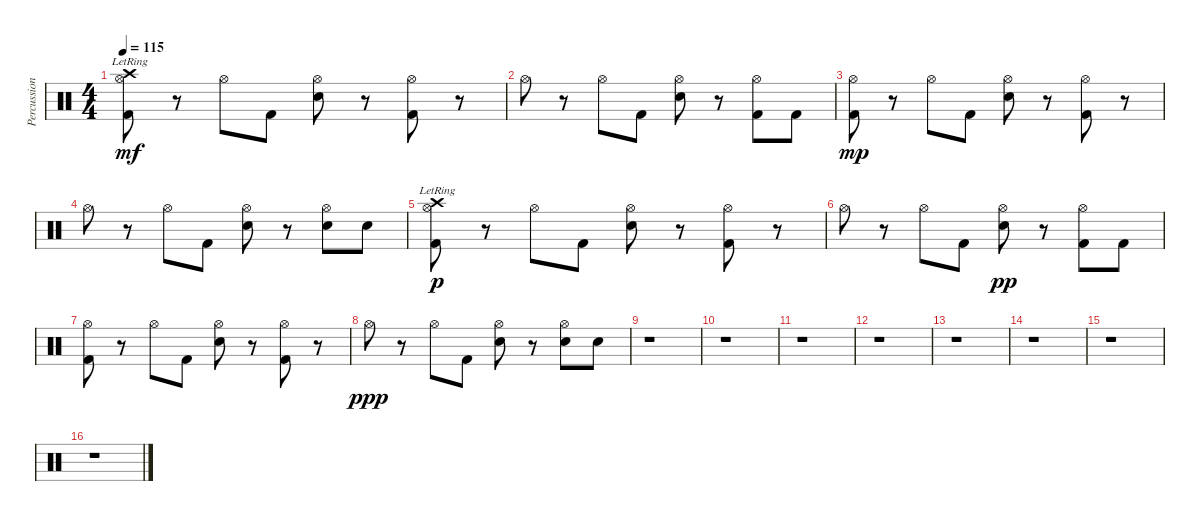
\track ("Percussions" "Percussion") {instrument percussion}
\staff {score}
\articulation defaults
\ts (4 4)
\tempo 115
\clef neutral
\ks c
("Crash high (hit)"{lr} "Kick (hit) 2" "Hi-Hat (open)").8{dy mf} r.8 "Hi-Hat (open)".8 "Kick (hit) 2".8 ("Electric Snare (hit)" "Hi-Hat (open)").8 r.8 ("Kick (hit) 2" "Hi-Hat (open)").8 r.8 |
"Hi-Hat (open)".8 r.8 "Hi-Hat (open)".8 "Kick (hit) 2".8 ("Electric Snare (hit)" "Hi-Hat (open)").8 r.8 ("Kick (hit) 2" "Hi-Hat (open)").8 "Kick (hit) 2".8 |
("Kick (hit) 2" "Hi-Hat (open)").8{dy mp} r.8 "Hi-Hat (open)".8 "Kick (hit) 2".8 ("Electric Snare (hit)" "Hi-Hat (open)").8 r.8 ("Kick (hit) 2" "Hi-Hat (open)").8 r.8 |
"Hi-Hat (open)".8 r.8 "Hi-Hat (open)".8 "Kick (hit) 2".8 ("Electric Snare (hit)" "Hi-Hat (open)").8 r.8 ("Electric Snare (hit)" "Hi-Hat (open)").8 "Electric Snare (hit)".8 |
("Crash high (hit)"{lr} "Kick (hit) 2" "Hi-Hat (open)").8{dy p} r.8 "Hi-Hat (open)".8 "Kick (hit) 2".8 ("Electric Snare (hit)" "Hi-Hat (open)").8 r.8 ("Kick (hit) 2" "Hi-Hat (open)").8 r.8 |
"Hi-Hat (open)".8 r.8 "Hi-Hat (open)".8 "Kick (hit) 2".8 ("Electric Snare (hit)" "Hi-Hat (open)").8{dy pp} r.8 ("Kick (hit) 2" "Hi-Hat (open)").8 "Kick (hit) 2".8 |
("Kick (hit) 2" "Hi-Hat (open)").8 r.8 "Hi-Hat (open)".8 "Kick (hit) 2".8 ("Electric Snare (hit)" "Hi-Hat (open)").8 r.8 ("Kick (hit) 2" "Hi-Hat (open)").8 r.8 |
"Hi-Hat (open)".8{dy ppp} r.8 "Hi-Hat (open)".8 "Kick (hit) 2".8 ("Electric Snare (hit)" "Hi-Hat (open)").8 r.8 ("Electric Snare (hit)" "Hi-Hat (open)").8 "Electric Snare (hit)".8 |
r.1 |
r.1 |
r.1 |
r.1 |
r.1 |
r.1 |
r.1 |
r.1
